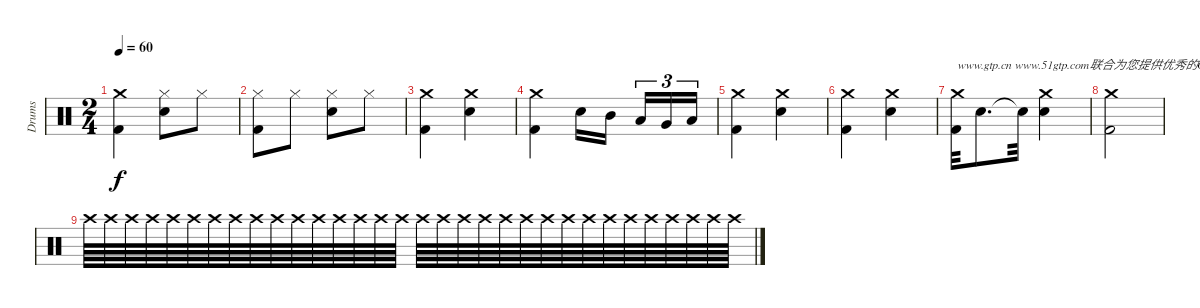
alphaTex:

\track ("Drums" "Drums") {instrument percussion}
\staff {score}
\articulation defaults
\ts (2 4)
\tempo 60
\clef neutral
\ks c
("Crash medium (hit)" "Kick (hit) 2").4{dy f} ("Hi-Hat (closed)" "Electric Snare (hit)").8 "Hi-Hat (closed)".8 |
("Hi-Hat (closed)" "Kick (hit) 2").8 "Hi-Hat (closed)".8 ("Hi-Hat (closed)" "Electric Snare (hit)").8 "Hi-Hat (closed)".8 |
("Crash medium (hit)" "Kick (hit) 2").4 ("Crash medium (hit)" "Electric Snare (hit)").4 |
("Crash medium (hit)" "Kick (hit) 2").4 "Electric Snare (hit)".16 "Mid Tom (hit)".16{beam splitsecondary} "Low Tom (hit)".16{tu (3 2)} "Very Low Tom (hit)".16{tu (3 2)} "Low Floor Tom (hit)".16{tu (3 2)} |
("Crash medium (hit)" "Kick (hit) 2").4 ("Crash medium (hit)" "Electric Snare (hit)").4 |
("Crash medium (hit)" "Kick (hit) 2").4 ("Crash medium (hit)" "Electric Snare (hit)").4 |
("Crash medium (hit)" "Kick (hit) 2").32{txt "www.gtp.cn www.51gtp.com联合为您提供优秀的GTP!"} "Electric Snare (hit)".8{d} "Snare (hit)"{t}.32 ("Crash medium (hit)" "Electric Snare (hit)").4 |
("Crash medium (hit)" "Kick (hit) 2").2 |
"Crash high (hit)".64{volume 0} "Crash high (hit)".64{volume 0} "Crash high (hit)".64{volume 0} "Crash high (hit)".64{volume 0} "Crash high (hit)".64{volume 0} "Crash high (hit)".64{volume 0} "Crash high (hit)".64{volume 0} "Crash high (hit)".64{volume 3} "Crash high (hit)".64{volume 3} "Crash high (hit)".64{volume 3} "Crash high (hit)".64{volume 4} "Crash high (hit)".64{volume 4} "Crash high (hit)".64{volume 5} "Crash high (hit)".64{volume 5} "Crash high (hit)".64{volume 5} "Crash high (hit)".64{volume 5} "Crash high (hit)".64{volume 6} "Crash high (hit)".64{volume 6} "Crash high (hit)".64{volume 6} "Crash high (hit)".64{volume 6} "Crash high (hit)".64{volume 8} "Crash high (hit)".64{volume 8} "Crash high (hit)".64{volume 8} "Crash high (hit)".64{volume 8} "Crash high (hit)".64{volume 6} "Crash high (hit)".64{volume 6} "Crash high (hit)".64{volume 6} "Crash high (hit)".64{volume 6} "Crash high (hit)".64{volume 5} "Crash high (hit)".64{volume 4} "Crash high (hit)".64{volume 3} "Crash high (hit)".64{volume 2}
